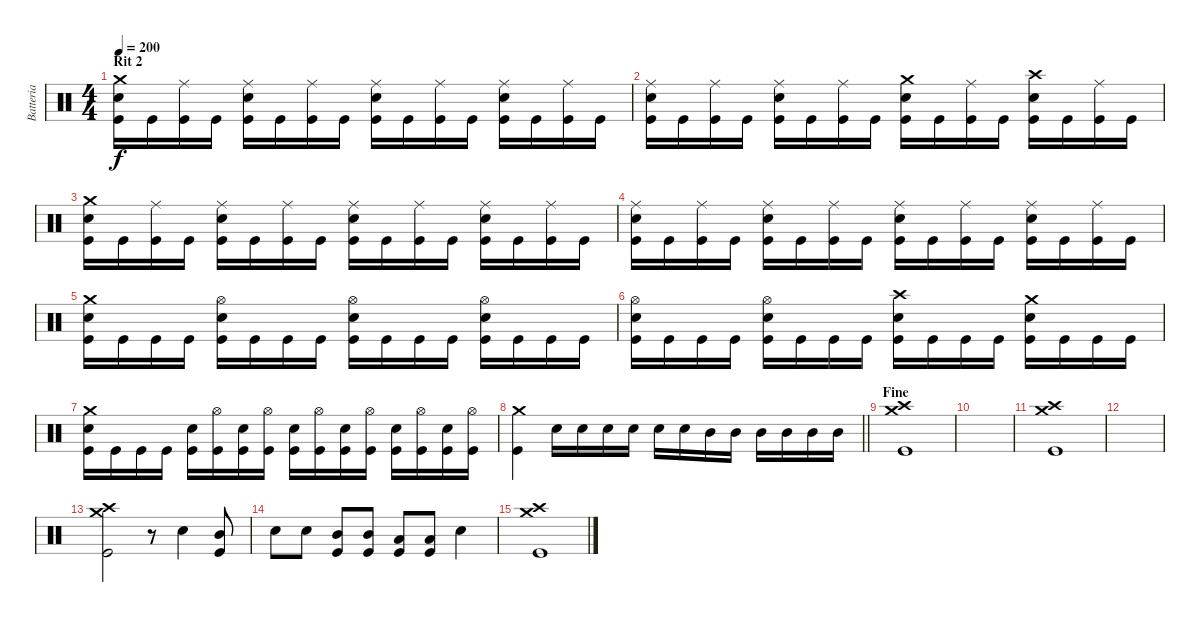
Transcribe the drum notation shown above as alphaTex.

\track ("Batteria" "Batteria") {instrument percussion}
\staff {score}
\articulation defaults
\ts (4 4)
\section ("" "Rit 2")
\tempo 200
\clef neutral
\ks c
("Crash medium (hit)" "Electric Snare (hit)" "Kick (hit)").16{dy f} "Kick (hit)".16 ("Ride (middle)" "Kick (hit)").16 "Kick (hit)".16 ("Ride (middle)" "Electric Snare (hit)" "Kick (hit)").16 "Kick (hit)".16 ("Ride (middle)" "Kick (hit)").16 "Kick (hit)".16 ("Ride (middle)" "Electric Snare (hit)" "Kick (hit)").16 "Kick (hit)".16 ("Ride (middle)" "Kick (hit)").16 "Kick (hit)".16 ("Ride (middle)" "Electric Snare (hit)" "Kick (hit)").16 "Kick (hit)".16 ("Ride (middle)" "Kick (hit)").16 "Kick (hit)".16 |
("Ride (middle)" "Electric Snare (hit)" "Kick (hit)").16 "Kick (hit)".16 ("Ride (middle)" "Kick (hit)").16 "Kick (hit)".16 ("Ride (middle)" "Electric Snare (hit)" "Kick (hit)").16 "Kick (hit)".16 ("Ride (middle)" "Kick (hit)").16 "Kick (hit)".16 ("Crash medium (hit)" "Electric Snare (hit)" "Kick (hit)").16 "Kick (hit)".16 ("Ride (middle)" "Kick (hit)").16 "Kick (hit)".16 ("Crash high (hit)" "Electric Snare (hit)" "Kick (hit)").16 "Kick (hit)".16 ("Ride (middle)" "Kick (hit)").16 "Kick (hit)".16 |
("Crash medium (hit)" "Electric Snare (hit)" "Kick (hit)").16 "Kick (hit)".16 ("Ride (middle)" "Kick (hit)").16 "Kick (hit)".16 ("Ride (middle)" "Electric Snare (hit)" "Kick (hit)").16 "Kick (hit)".16 ("Ride (middle)" "Kick (hit)").16 "Kick (hit)".16 ("Ride (middle)" "Electric Snare (hit)" "Kick (hit)").16 "Kick (hit)".16 ("Ride (middle)" "Kick (hit)").16 "Kick (hit)".16 ("Ride (middle)" "Electric Snare (hit)" "Kick (hit)").16 "Kick (hit)".16 ("Ride (middle)" "Kick (hit)").16 "Kick (hit)".16 |
("Ride (middle)" "Electric Snare (hit)" "Kick (hit)").16 "Kick (hit)".16 ("Ride (middle)" "Kick (hit)").16 "Kick (hit)".16 ("Ride (middle)" "Electric Snare (hit)" "Kick (hit)").16 "Kick (hit)".16 ("Ride (middle)" "Kick (hit)").16 "Kick (hit)".16 ("Ride (middle)" "Electric Snare (hit)" "Kick (hit)").16 "Kick (hit)".16 ("Ride (middle)" "Kick (hit)").16 "Kick (hit)".16 ("Ride (middle)" "Electric Snare (hit)" "Kick (hit)").16 "Kick (hit)".16 ("Ride (middle)" "Kick (hit)").16 "Kick (hit)".16 |
("Crash medium (hit)" "Electric Snare (hit)" "Kick (hit)").16 "Kick (hit)".16 "Kick (hit)".16 "Kick (hit)".16 ("Hi-Hat (open)" "Electric Snare (hit)" "Kick (hit)").16 "Kick (hit)".16 "Kick (hit)".16 "Kick (hit)".16 ("Hi-Hat (open)" "Electric Snare (hit)" "Kick (hit)").16 "Kick (hit)".16 "Kick (hit)".16 "Kick (hit)".16 ("Hi-Hat (open)" "Electric Snare (hit)" "Kick (hit)").16 "Kick (hit)".16 "Kick (hit)".16 "Kick (hit)".16 |
("Hi-Hat (open)" "Electric Snare (hit)" "Kick (hit)").16 "Kick (hit)".16 "Kick (hit)".16 "Kick (hit)".16 ("Hi-Hat (open)" "Electric Snare (hit)" "Kick (hit)").16 "Kick (hit)".16 "Kick (hit)".16 "Kick (hit)".16 ("Crash high (hit)" "Electric Snare (hit)" "Kick (hit)").16 "Kick (hit)".16 "Kick (hit)".16 "Kick (hit)".16 ("Crash medium (hit)" "Electric Snare (hit)" "Kick (hit)").16 "Kick (hit)".16 "Kick (hit)".16 "Kick (hit)".16 |
("Crash medium (hit)" "Electric Snare (hit)" "Kick (hit)").16 "Kick (hit)".16 "Kick (hit)".16 "Kick (hit)".16 ("Electric Snare (hit)" "Kick (hit)").16 ("Hi-Hat (open)" "Kick (hit)").16 ("Electric Snare (hit)" "Kick (hit)").16 ("Hi-Hat (open)" "Kick (hit)").16 ("Electric Snare (hit)" "Kick (hit)").16 ("Hi-Hat (open)" "Kick (hit)").16 ("Electric Snare (hit)" "Kick (hit)").16 ("Hi-Hat (open)" "Kick (hit)").16 ("Electric Snare (hit)" "Kick (hit)").16 ("Hi-Hat (open)" "Kick (hit)").16 ("Electric Snare (hit)" "Kick (hit)").16 ("Hi-Hat (open)" "Kick (hit)").16 |
\barLineRight lightlight
("Crash medium (hit)" "Kick (hit)").4 "Electric Snare (hit)".16 "Electric Snare (hit)".16 "Electric Snare (hit)".16 "Electric Snare (hit)".16 "Electric Snare (hit)".16 "Electric Snare (hit)".16 "Mid Tom (hit)".16 "Mid Tom (hit)".16 "Mid Tom (hit)".16 "Mid Tom (hit)".16 "Mid Tom (hit)".16 "Mid Tom (hit)".16 |
\section ("" "Fine")
("Crash medium (hit)" "Crash high (hit)" "Kick (hit)").1 |
|
("Crash medium (hit)" "Crash high (hit)" "Kick (hit)").1 |
|
("Crash medium (hit)" "Crash high (hit)" "Kick (hit)").2 r.8 "Electric Snare (hit)".4 ("Mid Tom (hit)" "Kick (hit)").8 |
"Electric Snare (hit)".8 "Electric Snare (hit)".8 ("Mid Tom (hit)" "Kick (hit)").8 ("Mid Tom (hit)" "Kick (hit)").8 ("Low Tom (hit)" "Kick (hit)").8 ("Low Tom (hit)" "Kick (hit)").8 "Electric Snare (hit)".4 |
("Crash medium (hit)" "Crash high (hit)" "Kick (hit)").1
